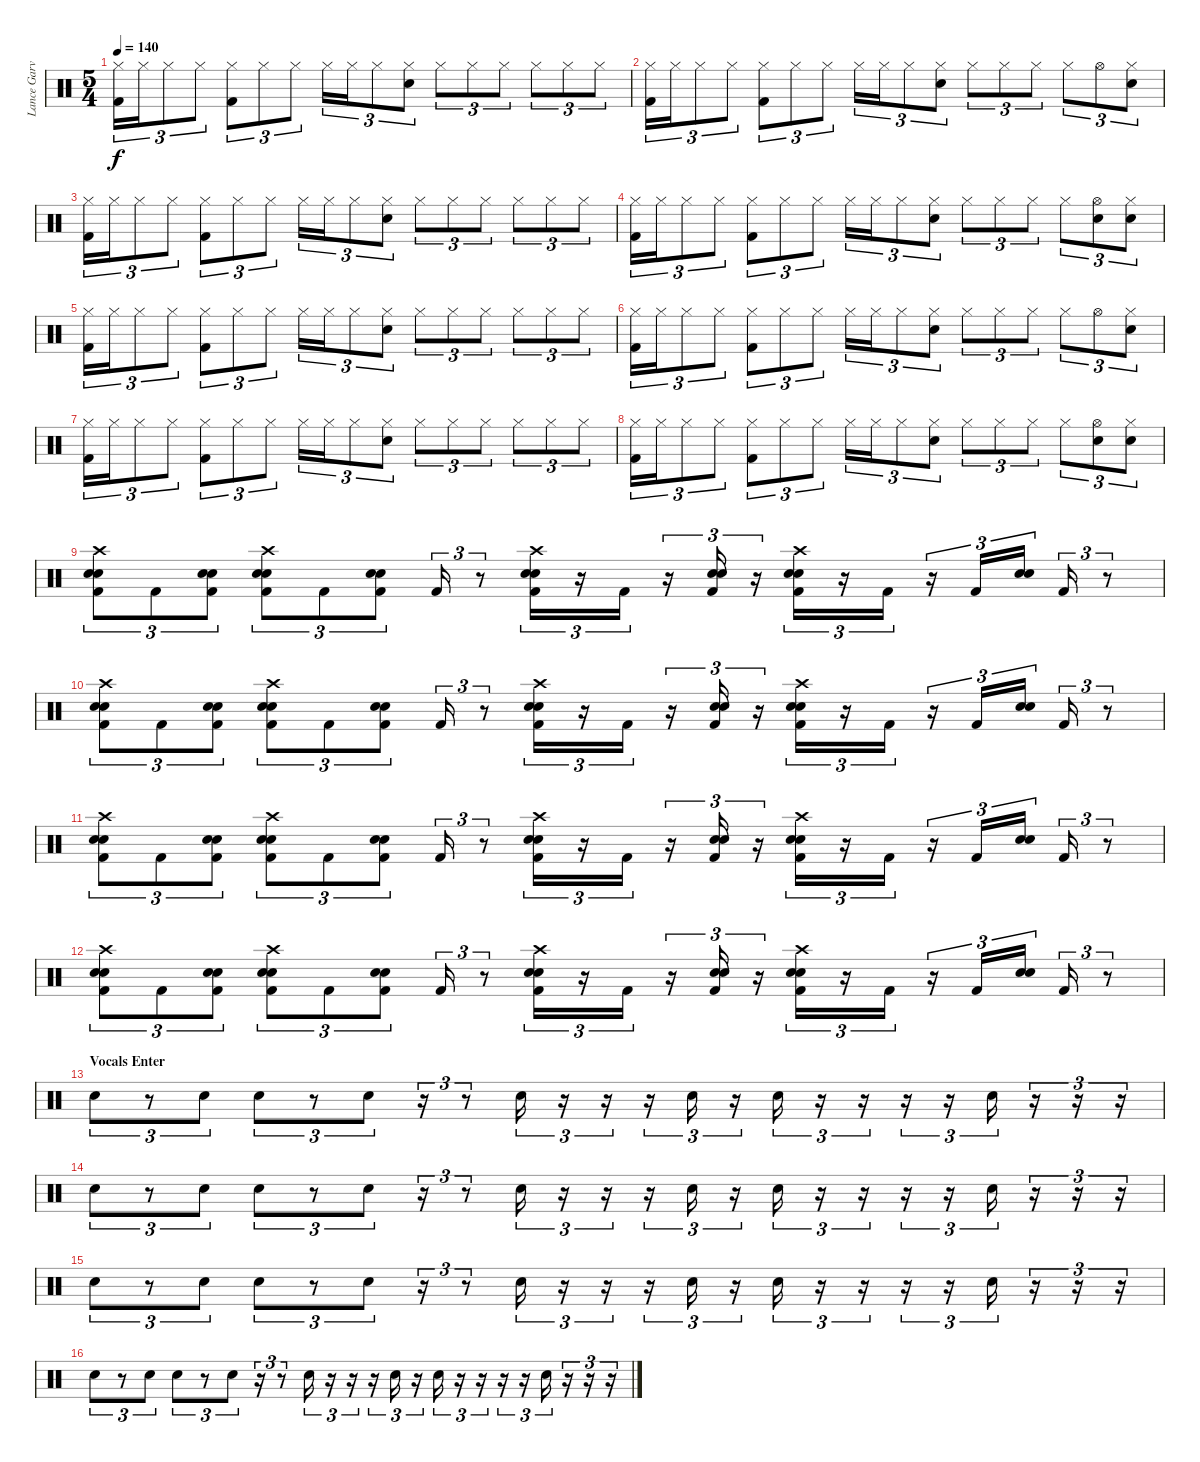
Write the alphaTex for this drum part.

\track ("Lance Garvin - Drums" "Lance Garv") {instrument percussion}
\staff {score}
\articulation defaults
\ts (5 4)
\tempo 140
\clef neutral
\ks c
("Hi-Hat (closed)" "Kick (hit) 2").16{tu (3 2) dy f} "Hi-Hat (closed)".16{tu (3 2)} "Hi-Hat (closed)".8{tu (3 2)} "Hi-Hat (closed)".8{tu (3 2)} ("Hi-Hat (closed)" "Kick (hit) 2").8{tu (3 2)} "Hi-Hat (closed)".8{tu (3 2)} "Hi-Hat (closed)".8{tu (3 2)} "Hi-Hat (closed)".16{tu (3 2)} "Hi-Hat (closed)".16{tu (3 2)} "Hi-Hat (closed)".8{tu (3 2)} ("Hi-Hat (closed)" "Electric Snare (hit)").8{tu (3 2)} "Hi-Hat (closed)".8{tu (3 2)} "Hi-Hat (closed)".8{tu (3 2)} "Hi-Hat (closed)".8{tu (3 2)} "Hi-Hat (closed)".8{tu (3 2)} "Hi-Hat (closed)".8{tu (3 2)} "Hi-Hat (closed)".8{tu (3 2)} |
("Hi-Hat (closed)" "Kick (hit) 2").16{tu (3 2)} "Hi-Hat (closed)".16{tu (3 2)} "Hi-Hat (closed)".8{tu (3 2)} "Hi-Hat (closed)".8{tu (3 2)} ("Hi-Hat (closed)" "Kick (hit) 2").8{tu (3 2)} "Hi-Hat (closed)".8{tu (3 2)} "Hi-Hat (closed)".8{tu (3 2)} "Hi-Hat (closed)".16{tu (3 2)} "Hi-Hat (closed)".16{tu (3 2)} "Hi-Hat (closed)".8{tu (3 2)} ("Hi-Hat (closed)" "Electric Snare (hit)").8{tu (3 2)} "Hi-Hat (closed)".8{tu (3 2)} "Hi-Hat (closed)".8{tu (3 2)} "Hi-Hat (closed)".8{tu (3 2)} "Hi-Hat (closed)".8{tu (3 2)} "Hi-Hat (open)".8{tu (3 2)} ("Hi-Hat (closed)" "Electric Snare (hit)").8{tu (3 2)} |
("Hi-Hat (closed)" "Kick (hit) 2").16{tu (3 2)} "Hi-Hat (closed)".16{tu (3 2)} "Hi-Hat (closed)".8{tu (3 2)} "Hi-Hat (closed)".8{tu (3 2)} ("Hi-Hat (closed)" "Kick (hit) 2").8{tu (3 2)} "Hi-Hat (closed)".8{tu (3 2)} "Hi-Hat (closed)".8{tu (3 2)} "Hi-Hat (closed)".16{tu (3 2)} "Hi-Hat (closed)".16{tu (3 2)} "Hi-Hat (closed)".8{tu (3 2)} ("Hi-Hat (closed)" "Electric Snare (hit)").8{tu (3 2)} "Hi-Hat (closed)".8{tu (3 2)} "Hi-Hat (closed)".8{tu (3 2)} "Hi-Hat (closed)".8{tu (3 2)} "Hi-Hat (closed)".8{tu (3 2)} "Hi-Hat (closed)".8{tu (3 2)} "Hi-Hat (closed)".8{tu (3 2)} |
("Hi-Hat (closed)" "Kick (hit) 2").16{tu (3 2)} "Hi-Hat (closed)".16{tu (3 2)} "Hi-Hat (closed)".8{tu (3 2)} "Hi-Hat (closed)".8{tu (3 2)} ("Hi-Hat (closed)" "Kick (hit) 2").8{tu (3 2)} "Hi-Hat (closed)".8{tu (3 2)} "Hi-Hat (closed)".8{tu (3 2)} "Hi-Hat (closed)".16{tu (3 2)} "Hi-Hat (closed)".16{tu (3 2)} "Hi-Hat (closed)".8{tu (3 2)} ("Hi-Hat (closed)" "Electric Snare (hit)").8{tu (3 2)} "Hi-Hat (closed)".8{tu (3 2)} "Hi-Hat (closed)".8{tu (3 2)} "Hi-Hat (closed)".8{tu (3 2)} "Hi-Hat (closed)".8{tu (3 2)} ("Hi-Hat (open)" "Electric Snare (hit)").8{tu (3 2)} ("Hi-Hat (closed)" "Electric Snare (hit)").8{tu (3 2)} |
("Hi-Hat (closed)" "Kick (hit) 2").16{tu (3 2)} "Hi-Hat (closed)".16{tu (3 2)} "Hi-Hat (closed)".8{tu (3 2)} "Hi-Hat (closed)".8{tu (3 2)} ("Hi-Hat (closed)" "Kick (hit) 2").8{tu (3 2)} "Hi-Hat (closed)".8{tu (3 2)} "Hi-Hat (closed)".8{tu (3 2)} "Hi-Hat (closed)".16{tu (3 2)} "Hi-Hat (closed)".16{tu (3 2)} "Hi-Hat (closed)".8{tu (3 2)} ("Hi-Hat (closed)" "Electric Snare (hit)").8{tu (3 2)} "Hi-Hat (closed)".8{tu (3 2)} "Hi-Hat (closed)".8{tu (3 2)} "Hi-Hat (closed)".8{tu (3 2)} "Hi-Hat (closed)".8{tu (3 2)} "Hi-Hat (closed)".8{tu (3 2)} "Hi-Hat (closed)".8{tu (3 2)} |
("Hi-Hat (closed)" "Kick (hit) 2").16{tu (3 2)} "Hi-Hat (closed)".16{tu (3 2)} "Hi-Hat (closed)".8{tu (3 2)} "Hi-Hat (closed)".8{tu (3 2)} ("Hi-Hat (closed)" "Kick (hit) 2").8{tu (3 2)} "Hi-Hat (closed)".8{tu (3 2)} "Hi-Hat (closed)".8{tu (3 2)} "Hi-Hat (closed)".16{tu (3 2)} "Hi-Hat (closed)".16{tu (3 2)} "Hi-Hat (closed)".8{tu (3 2)} ("Hi-Hat (closed)" "Electric Snare (hit)").8{tu (3 2)} "Hi-Hat (closed)".8{tu (3 2)} "Hi-Hat (closed)".8{tu (3 2)} "Hi-Hat (closed)".8{tu (3 2)} "Hi-Hat (closed)".8{tu (3 2)} "Hi-Hat (open)".8{tu (3 2)} ("Hi-Hat (closed)" "Electric Snare (hit)").8{tu (3 2)} |
("Hi-Hat (closed)" "Kick (hit) 2").16{tu (3 2)} "Hi-Hat (closed)".16{tu (3 2)} "Hi-Hat (closed)".8{tu (3 2)} "Hi-Hat (closed)".8{tu (3 2)} ("Hi-Hat (closed)" "Kick (hit) 2").8{tu (3 2)} "Hi-Hat (closed)".8{tu (3 2)} "Hi-Hat (closed)".8{tu (3 2)} "Hi-Hat (closed)".16{tu (3 2)} "Hi-Hat (closed)".16{tu (3 2)} "Hi-Hat (closed)".8{tu (3 2)} ("Hi-Hat (closed)" "Electric Snare (hit)").8{tu (3 2)} "Hi-Hat (closed)".8{tu (3 2)} "Hi-Hat (closed)".8{tu (3 2)} "Hi-Hat (closed)".8{tu (3 2)} "Hi-Hat (closed)".8{tu (3 2)} "Hi-Hat (closed)".8{tu (3 2)} "Hi-Hat (closed)".8{tu (3 2)} |
("Hi-Hat (closed)" "Kick (hit) 2").16{tu (3 2)} "Hi-Hat (closed)".16{tu (3 2)} "Hi-Hat (closed)".8{tu (3 2)} "Hi-Hat (closed)".8{tu (3 2)} ("Hi-Hat (closed)" "Kick (hit) 2").8{tu (3 2)} "Hi-Hat (closed)".8{tu (3 2)} "Hi-Hat (closed)".8{tu (3 2)} "Hi-Hat (closed)".16{tu (3 2)} "Hi-Hat (closed)".16{tu (3 2)} "Hi-Hat (closed)".8{tu (3 2)} ("Hi-Hat (closed)" "Electric Snare (hit)").8{tu (3 2)} "Hi-Hat (closed)".8{tu (3 2)} "Hi-Hat (closed)".8{tu (3 2)} "Hi-Hat (closed)".8{tu (3 2)} "Hi-Hat (closed)".8{tu (3 2)} ("Hi-Hat (open)" "Electric Snare (hit)").8{tu (3 2)} ("Hi-Hat (closed)" "Electric Snare (hit)").8{tu (3 2)} |
("Crash high (hit)" "Electric Snare (hit)" "Electric Snare (hit)" "Kick (hit) 2").8{tu (3 2)} "Kick (hit) 2".8{tu (3 2)} ("Electric Snare (hit)" "Electric Snare (hit)" "Kick (hit) 2").8{tu (3 2)} ("Crash high (hit)" "Electric Snare (hit)" "Electric Snare (hit)" "Kick (hit) 2").8{tu (3 2)} "Kick (hit) 2".8{tu (3 2)} ("Electric Snare (hit)" "Electric Snare (hit)" "Kick (hit) 2").8{tu (3 2)} "Kick (hit) 2".16{tu (3 2)} r.8{tu (3 2)} ("Crash high (hit)" "Electric Snare (hit)" "Electric Snare (hit)" "Kick (hit) 2").16{tu (3 2)} r.16{tu (3 2)} "Kick (hit) 2".16{tu (3 2)} r.16{tu (3 2)} ("Electric Snare (hit)" "Electric Snare (hit)" "Kick (hit) 2").16{tu (3 2)} r.16{tu (3 2)} ("Crash high (hit)" "Electric Snare (hit)" "Electric Snare (hit)" "Kick (hit) 2").16{tu (3 2)} r.16{tu (3 2)} "Kick (hit) 2".16{tu (3 2)} r.16{tu (3 2)} "Kick (hit) 2".16{tu (3 2)} ("Electric Snare (hit)" "Electric Snare (hit)").16{tu (3 2)} "Kick (hit) 2".16{tu (3 2)} r.8{tu (3 2)} |
("Crash high (hit)" "Electric Snare (hit)" "Electric Snare (hit)" "Kick (hit) 2").8{tu (3 2)} "Kick (hit) 2".8{tu (3 2)} ("Electric Snare (hit)" "Electric Snare (hit)" "Kick (hit) 2").8{tu (3 2)} ("Crash high (hit)" "Electric Snare (hit)" "Electric Snare (hit)" "Kick (hit) 2").8{tu (3 2)} "Kick (hit) 2".8{tu (3 2)} ("Electric Snare (hit)" "Electric Snare (hit)" "Kick (hit) 2").8{tu (3 2)} "Kick (hit) 2".16{tu (3 2)} r.8{tu (3 2)} ("Crash high (hit)" "Electric Snare (hit)" "Electric Snare (hit)" "Kick (hit) 2").16{tu (3 2)} r.16{tu (3 2)} "Kick (hit) 2".16{tu (3 2)} r.16{tu (3 2)} ("Electric Snare (hit)" "Electric Snare (hit)" "Kick (hit) 2").16{tu (3 2)} r.16{tu (3 2)} ("Crash high (hit)" "Electric Snare (hit)" "Electric Snare (hit)" "Kick (hit) 2").16{tu (3 2)} r.16{tu (3 2)} "Kick (hit) 2".16{tu (3 2)} r.16{tu (3 2)} "Kick (hit) 2".16{tu (3 2)} ("Electric Snare (hit)" "Electric Snare (hit)").16{tu (3 2)} "Kick (hit) 2".16{tu (3 2)} r.8{tu (3 2)} |
("Crash high (hit)" "Electric Snare (hit)" "Electric Snare (hit)" "Kick (hit) 2").8{tu (3 2)} "Kick (hit) 2".8{tu (3 2)} ("Electric Snare (hit)" "Electric Snare (hit)" "Kick (hit) 2").8{tu (3 2)} ("Crash high (hit)" "Electric Snare (hit)" "Electric Snare (hit)" "Kick (hit) 2").8{tu (3 2)} "Kick (hit) 2".8{tu (3 2)} ("Electric Snare (hit)" "Electric Snare (hit)" "Kick (hit) 2").8{tu (3 2)} "Kick (hit) 2".16{tu (3 2)} r.8{tu (3 2)} ("Crash high (hit)" "Electric Snare (hit)" "Electric Snare (hit)" "Kick (hit) 2").16{tu (3 2)} r.16{tu (3 2)} "Kick (hit) 2".16{tu (3 2)} r.16{tu (3 2)} ("Electric Snare (hit)" "Electric Snare (hit)" "Kick (hit) 2").16{tu (3 2)} r.16{tu (3 2)} ("Crash high (hit)" "Electric Snare (hit)" "Electric Snare (hit)" "Kick (hit) 2").16{tu (3 2)} r.16{tu (3 2)} "Kick (hit) 2".16{tu (3 2)} r.16{tu (3 2)} "Kick (hit) 2".16{tu (3 2)} ("Electric Snare (hit)" "Electric Snare (hit)").16{tu (3 2)} "Kick (hit) 2".16{tu (3 2)} r.8{tu (3 2)} |
("Crash high (hit)" "Electric Snare (hit)" "Electric Snare (hit)" "Kick (hit) 2").8{tu (3 2)} "Kick (hit) 2".8{tu (3 2)} ("Electric Snare (hit)" "Electric Snare (hit)" "Kick (hit) 2").8{tu (3 2)} ("Crash high (hit)" "Electric Snare (hit)" "Electric Snare (hit)" "Kick (hit) 2").8{tu (3 2)} "Kick (hit) 2".8{tu (3 2)} ("Electric Snare (hit)" "Electric Snare (hit)" "Kick (hit) 2").8{tu (3 2)} "Kick (hit) 2".16{tu (3 2)} r.8{tu (3 2)} ("Crash high (hit)" "Electric Snare (hit)" "Electric Snare (hit)" "Kick (hit) 2").16{tu (3 2)} r.16{tu (3 2)} "Kick (hit) 2".16{tu (3 2)} r.16{tu (3 2)} ("Electric Snare (hit)" "Electric Snare (hit)" "Kick (hit) 2").16{tu (3 2)} r.16{tu (3 2)} ("Crash high (hit)" "Electric Snare (hit)" "Electric Snare (hit)" "Kick (hit) 2").16{tu (3 2)} r.16{tu (3 2)} "Kick (hit) 2".16{tu (3 2)} r.16{tu (3 2)} "Kick (hit) 2".16{tu (3 2)} ("Electric Snare (hit)" "Electric Snare (hit)").16{tu (3 2)} "Kick (hit) 2".16{tu (3 2)} r.8{tu (3 2)} |
\section ("" "Vocals Enter")
"Electric Snare (hit)".8{tu (3 2)} r.8{tu (3 2)} "Electric Snare (hit)".8{tu (3 2)} "Electric Snare (hit)".8{tu (3 2)} r.8{tu (3 2)} "Electric Snare (hit)".8{tu (3 2)} r.16{tu (3 2)} r.8{tu (3 2)} "Electric Snare (hit)".16{tu (3 2)} r.16{tu (3 2)} r.16{tu (3 2)} r.16{tu (3 2)} "Electric Snare (hit)".16{tu (3 2)} r.16{tu (3 2)} "Electric Snare (hit)".16{tu (3 2)} r.16{tu (3 2)} r.16{tu (3 2)} r.16{tu (3 2)} r.16{tu (3 2)} "Electric Snare (hit)".16{tu (3 2)} r.16{tu (3 2)} r.16{tu (3 2)} r.16{tu (3 2)} |
"Electric Snare (hit)".8{tu (3 2)} r.8{tu (3 2)} "Electric Snare (hit)".8{tu (3 2)} "Electric Snare (hit)".8{tu (3 2)} r.8{tu (3 2)} "Electric Snare (hit)".8{tu (3 2)} r.16{tu (3 2)} r.8{tu (3 2)} "Electric Snare (hit)".16{tu (3 2)} r.16{tu (3 2)} r.16{tu (3 2)} r.16{tu (3 2)} "Electric Snare (hit)".16{tu (3 2)} r.16{tu (3 2)} "Electric Snare (hit)".16{tu (3 2)} r.16{tu (3 2)} r.16{tu (3 2)} r.16{tu (3 2)} r.16{tu (3 2)} "Electric Snare (hit)".16{tu (3 2)} r.16{tu (3 2)} r.16{tu (3 2)} r.16{tu (3 2)} |
"Electric Snare (hit)".8{tu (3 2)} r.8{tu (3 2)} "Electric Snare (hit)".8{tu (3 2)} "Electric Snare (hit)".8{tu (3 2)} r.8{tu (3 2)} "Electric Snare (hit)".8{tu (3 2)} r.16{tu (3 2)} r.8{tu (3 2)} "Electric Snare (hit)".16{tu (3 2)} r.16{tu (3 2)} r.16{tu (3 2)} r.16{tu (3 2)} "Electric Snare (hit)".16{tu (3 2)} r.16{tu (3 2)} "Electric Snare (hit)".16{tu (3 2)} r.16{tu (3 2)} r.16{tu (3 2)} r.16{tu (3 2)} r.16{tu (3 2)} "Electric Snare (hit)".16{tu (3 2)} r.16{tu (3 2)} r.16{tu (3 2)} r.16{tu (3 2)} |
"Electric Snare (hit)".8{tu (3 2)} r.8{tu (3 2)} "Electric Snare (hit)".8{tu (3 2)} "Electric Snare (hit)".8{tu (3 2)} r.8{tu (3 2)} "Electric Snare (hit)".8{tu (3 2)} r.16{tu (3 2)} r.8{tu (3 2)} "Electric Snare (hit)".16{tu (3 2)} r.16{tu (3 2)} r.16{tu (3 2)} r.16{tu (3 2)} "Electric Snare (hit)".16{tu (3 2)} r.16{tu (3 2)} "Electric Snare (hit)".16{tu (3 2)} r.16{tu (3 2)} r.16{tu (3 2)} r.16{tu (3 2)} r.16{tu (3 2)} "Electric Snare (hit)".16{tu (3 2)} r.16{tu (3 2)} r.16{tu (3 2)} r.16{tu (3 2)}
